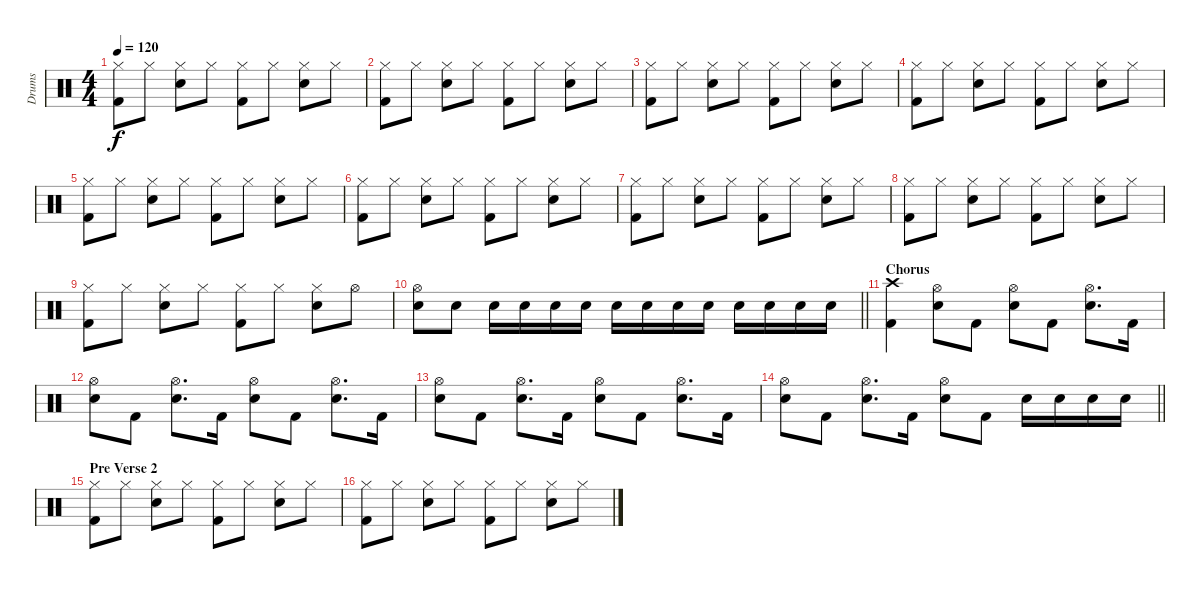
\track ("Drums" "Drums") {instrument percussion}
\staff {score}
\articulation defaults
\ts (4 4)
\tempo 120
\clef neutral
\ks c
("Hi-Hat (closed)" "Kick (hit) 2").8{dy f} "Hi-Hat (closed)".8 ("Hi-Hat (closed)" "Snare (hit) 2").8 "Hi-Hat (closed)".8 ("Hi-Hat (closed)" "Kick (hit) 2").8 "Hi-Hat (closed)".8 ("Hi-Hat (closed)" "Snare (hit) 2").8 "Hi-Hat (closed)".8 |
("Hi-Hat (closed)" "Kick (hit) 2").8 "Hi-Hat (closed)".8 ("Hi-Hat (closed)" "Snare (hit) 2").8 "Hi-Hat (closed)".8 ("Hi-Hat (closed)" "Kick (hit) 2").8 "Hi-Hat (closed)".8 ("Hi-Hat (closed)" "Snare (hit) 2").8 "Hi-Hat (closed)".8 |
("Hi-Hat (closed)" "Kick (hit) 2").8 "Hi-Hat (closed)".8 ("Hi-Hat (closed)" "Snare (hit) 2").8 "Hi-Hat (closed)".8 ("Hi-Hat (closed)" "Kick (hit) 2").8 "Hi-Hat (closed)".8 ("Hi-Hat (closed)" "Snare (hit) 2").8 "Hi-Hat (closed)".8 |
("Hi-Hat (closed)" "Kick (hit) 2").8 "Hi-Hat (closed)".8 ("Hi-Hat (closed)" "Snare (hit) 2").8 "Hi-Hat (closed)".8 ("Hi-Hat (closed)" "Kick (hit) 2").8 "Hi-Hat (closed)".8 ("Hi-Hat (closed)" "Snare (hit) 2").8 "Hi-Hat (closed)".8 |
("Hi-Hat (closed)" "Kick (hit) 2").8 "Hi-Hat (closed)".8 ("Hi-Hat (closed)" "Snare (hit) 2").8 "Hi-Hat (closed)".8 ("Hi-Hat (closed)" "Kick (hit) 2").8 "Hi-Hat (closed)".8 ("Hi-Hat (closed)" "Snare (hit) 2").8 "Hi-Hat (closed)".8 |
("Hi-Hat (closed)" "Kick (hit) 2").8 "Hi-Hat (closed)".8 ("Hi-Hat (closed)" "Snare (hit) 2").8 "Hi-Hat (closed)".8 ("Hi-Hat (closed)" "Kick (hit) 2").8 "Hi-Hat (closed)".8 ("Hi-Hat (closed)" "Snare (hit) 2").8 "Hi-Hat (closed)".8 |
("Hi-Hat (closed)" "Kick (hit) 2").8 "Hi-Hat (closed)".8 ("Hi-Hat (closed)" "Snare (hit) 2").8 "Hi-Hat (closed)".8 ("Hi-Hat (closed)" "Kick (hit) 2").8 "Hi-Hat (closed)".8 ("Hi-Hat (closed)" "Snare (hit) 2").8 "Hi-Hat (closed)".8 |
("Hi-Hat (closed)" "Kick (hit) 2").8 "Hi-Hat (closed)".8 ("Hi-Hat (closed)" "Snare (hit) 2").8 "Hi-Hat (closed)".8 ("Hi-Hat (closed)" "Kick (hit) 2").8 "Hi-Hat (closed)".8 ("Hi-Hat (closed)" "Snare (hit) 2").8 "Hi-Hat (closed)".8 |
("Hi-Hat (closed)" "Kick (hit) 2").8 "Hi-Hat (closed)".8 ("Hi-Hat (closed)" "Snare (hit) 2").8 "Hi-Hat (closed)".8 ("Hi-Hat (closed)" "Kick (hit) 2").8 "Hi-Hat (closed)".8 ("Hi-Hat (closed)" "Snare (hit) 2").8 "Hi-Hat (open)".8 |
\barLineRight lightlight
("Hi-Hat (open)" "Snare (hit) 2").8 "Snare (hit) 2".8 "Snare (hit) 2".16 "Snare (hit) 2".16 "Snare (hit) 2".16 "Snare (hit) 2".16 "Snare (hit) 2".16 "Snare (hit) 2".16 "Snare (hit) 2".16 "Snare (hit) 2".16 "Snare (hit) 2".16 "Snare (hit) 2".16 "Snare (hit) 2".16 "Snare (hit) 2".16 |
\section ("" "Chorus")
("Crash high (hit)" "Kick (hit) 2").4 ("Hi-Hat (open)" "Snare (hit) 2").8 "Kick (hit) 2".8 ("Hi-Hat (open)" "Snare (hit) 2").8 "Kick (hit) 2".8 ("Hi-Hat (open)" "Snare (hit) 2").8{d} "Kick (hit) 2".16 |
("Hi-Hat (open)" "Snare (hit) 2").8 "Kick (hit) 2".8 ("Hi-Hat (open)" "Snare (hit) 2").8{d} "Kick (hit) 2".16 ("Hi-Hat (open)" "Snare (hit) 2").8 "Kick (hit) 2".8 ("Hi-Hat (open)" "Snare (hit) 2").8{d} "Kick (hit) 2".16 |
("Hi-Hat (open)" "Snare (hit) 2").8 "Kick (hit) 2".8 ("Hi-Hat (open)" "Snare (hit) 2").8{d} "Kick (hit) 2".16 ("Hi-Hat (open)" "Snare (hit) 2").8 "Kick (hit) 2".8 ("Hi-Hat (open)" "Snare (hit) 2").8{d} "Kick (hit) 2".16 |
\barLineRight lightlight
("Hi-Hat (open)" "Snare (hit) 2").8 "Kick (hit) 2".8 ("Hi-Hat (open)" "Snare (hit) 2").8{d} "Kick (hit) 2".16 ("Hi-Hat (open)" "Snare (hit) 2").8 "Kick (hit) 2".8 "Snare (hit) 2".16 "Snare (hit) 2".16 "Snare (hit) 2".16 "Snare (hit) 2".16 |
\section ("" "Pre Verse 2")
("Hi-Hat (closed)" "Kick (hit) 2").8 "Hi-Hat (closed)".8 ("Hi-Hat (closed)" "Snare (hit) 2").8 "Hi-Hat (closed)".8 ("Hi-Hat (closed)" "Kick (hit) 2").8 "Hi-Hat (closed)".8 ("Hi-Hat (closed)" "Snare (hit) 2").8 "Hi-Hat (closed)".8 |
("Hi-Hat (closed)" "Kick (hit) 2").8 "Hi-Hat (closed)".8 ("Hi-Hat (closed)" "Snare (hit) 2").8 "Hi-Hat (closed)".8 ("Hi-Hat (closed)" "Kick (hit) 2").8 "Hi-Hat (closed)".8 ("Hi-Hat (closed)" "Snare (hit) 2").8 "Hi-Hat (closed)".8
